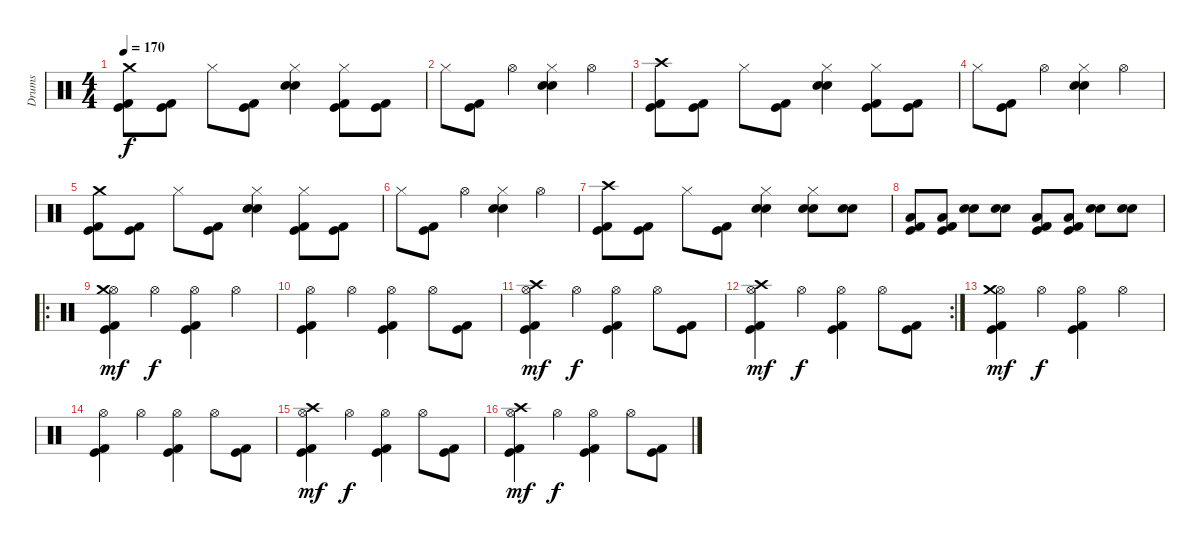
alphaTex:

\track ("Drums" "Drums") {instrument percussion}
\staff {score}
\articulation defaults
\ts (4 4)
\tempo 170
\clef neutral
\ks c
("Crash medium (hit)" "Kick (hit) 2" "Kick (hit)").8{dy f} ("Kick (hit) 2" "Kick (hit)").8 "Hi-Hat (closed)".8 ("Kick (hit) 2" "Kick (hit)").8 ("Hi-Hat (closed)" "Electric Snare (hit)" "Snare (hit) 2").4 ("Hi-Hat (closed)" "Kick (hit) 2" "Kick (hit)").8 ("Kick (hit) 2" "Kick (hit)").8 |
"Hi-Hat (closed)".8 ("Kick (hit) 2" "Kick (hit)").8 "Hi-Hat (open)".4 ("Hi-Hat (closed)" "Electric Snare (hit)" "Snare (hit) 2").4 "Hi-Hat (open)".4 |
("Crash high (hit)" "Kick (hit) 2" "Kick (hit)").8 ("Kick (hit) 2" "Kick (hit)").8 "Hi-Hat (closed)".8 ("Kick (hit) 2" "Kick (hit)").8 ("Hi-Hat (closed)" "Electric Snare (hit)" "Snare (hit) 2").4 ("Hi-Hat (closed)" "Kick (hit) 2" "Kick (hit)").8 ("Kick (hit) 2" "Kick (hit)").8 |
"Hi-Hat (closed)".8 ("Kick (hit) 2" "Kick (hit)").8 "Hi-Hat (open)".4 ("Hi-Hat (closed)" "Electric Snare (hit)" "Snare (hit) 2").4 "Hi-Hat (open)".4 |
("Crash medium (hit)" "Kick (hit) 2" "Kick (hit)").8 ("Kick (hit) 2" "Kick (hit)").8 "Hi-Hat (closed)".8 ("Kick (hit) 2" "Kick (hit)").8 ("Hi-Hat (closed)" "Electric Snare (hit)" "Snare (hit) 2").4 ("Hi-Hat (closed)" "Kick (hit) 2" "Kick (hit)").8 ("Kick (hit) 2" "Kick (hit)").8 |
"Hi-Hat (closed)".8 ("Kick (hit) 2" "Kick (hit)").8 "Hi-Hat (open)".4 ("Hi-Hat (closed)" "Electric Snare (hit)" "Snare (hit) 2").4 "Hi-Hat (open)".4 |
("Crash high (hit)" "Kick (hit) 2" "Kick (hit)").8 ("Kick (hit) 2" "Kick (hit)").8 "Hi-Hat (closed)".8 ("Kick (hit) 2" "Kick (hit)").8 ("Hi-Hat (closed)" "Electric Snare (hit)" "Snare (hit) 2").4 ("Hi-Hat (closed)" "Electric Snare (hit)" "Snare (hit) 2").8 ("Electric Snare (hit)" "Snare (hit) 2").8 |
("Low Tom (hit)" "Kick (hit) 2" "Kick (hit)").8 ("Low Tom (hit)" "Kick (hit) 2" "Kick (hit)").8 ("Electric Snare (hit)" "Snare (hit) 2").8 ("Electric Snare (hit)" "Snare (hit) 2").8 ("Low Tom (hit)" "Kick (hit) 2" "Kick (hit)").8 ("Low Tom (hit)" "Kick (hit) 2" "Kick (hit)").8 ("Electric Snare (hit)" "Snare (hit) 2").8 ("Electric Snare (hit)" "Snare (hit) 2").8 |
\ro
("Hi-Hat (open)" "Crash medium (hit)" "Kick (hit) 2" "Kick (hit)").4{dy mf} "Hi-Hat (open)".4{dy f} ("Hi-Hat (open)" "Kick (hit) 2" "Kick (hit)").4 "Hi-Hat (open)".4 |
("Hi-Hat (open)" "Kick (hit) 2" "Kick (hit)").4 "Hi-Hat (open)".4 ("Hi-Hat (open)" "Kick (hit) 2" "Kick (hit)").4 "Hi-Hat (open)".8 ("Kick (hit) 2" "Kick (hit)").8 |
("Hi-Hat (open)" "Crash high (hit)" "Kick (hit) 2" "Kick (hit)").4{dy mf} "Hi-Hat (open)".4{dy f} ("Hi-Hat (open)" "Kick (hit) 2" "Kick (hit)").4 "Hi-Hat (open)".8 ("Kick (hit) 2" "Kick (hit)").8 |
\rc 2
("Hi-Hat (open)" "Crash high (hit)" "Kick (hit) 2" "Kick (hit)").4{dy mf} "Hi-Hat (open)".4{dy f} ("Hi-Hat (open)" "Kick (hit) 2" "Kick (hit)").4 "Hi-Hat (open)".8 ("Kick (hit) 2" "Kick (hit)").8 |
("Hi-Hat (open)" "Crash medium (hit)" "Kick (hit) 2" "Kick (hit)").4{dy mf} "Hi-Hat (open)".4{dy f} ("Hi-Hat (open)" "Kick (hit) 2" "Kick (hit)").4 "Hi-Hat (open)".4 |
("Hi-Hat (open)" "Kick (hit) 2" "Kick (hit)").4 "Hi-Hat (open)".4 ("Hi-Hat (open)" "Kick (hit) 2" "Kick (hit)").4 "Hi-Hat (open)".8 ("Kick (hit) 2" "Kick (hit)").8 |
("Hi-Hat (open)" "Crash high (hit)" "Kick (hit) 2" "Kick (hit)").4{dy mf} "Hi-Hat (open)".4{dy f} ("Hi-Hat (open)" "Kick (hit) 2" "Kick (hit)").4 "Hi-Hat (open)".8 ("Kick (hit) 2" "Kick (hit)").8 |
("Hi-Hat (open)" "Crash high (hit)" "Kick (hit) 2" "Kick (hit)").4{dy mf} "Hi-Hat (open)".4{dy f} ("Hi-Hat (open)" "Kick (hit) 2" "Kick (hit)").4 "Hi-Hat (open)".8 ("Kick (hit) 2" "Kick (hit)").8
